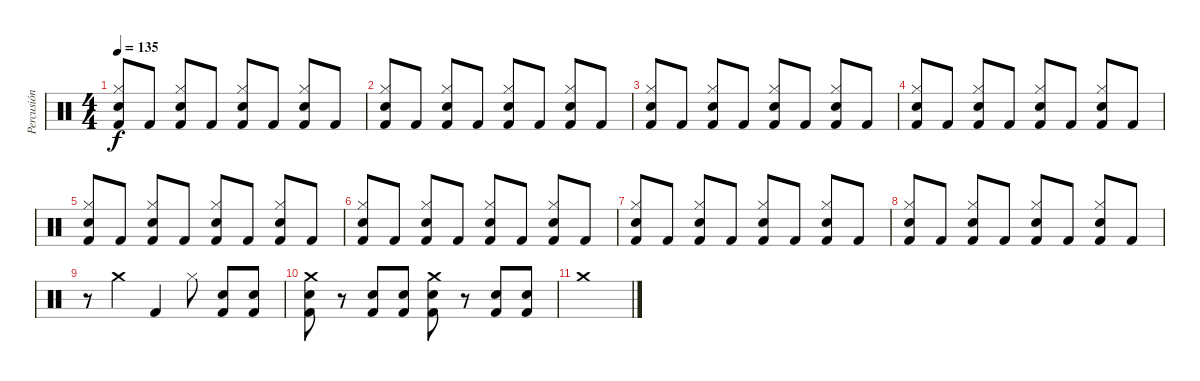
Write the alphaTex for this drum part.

\track ("Percusión" "Percusión") {instrument percussion}
\staff {score}
\articulation defaults
\ts (4 4)
\tempo 135
\clef neutral
\ks c
("Snare (hit) 2" "Hi-Hat (closed)" "Kick (hit) 2").8{dy f} "Kick (hit) 2".8 ("Snare (hit) 2" "Hi-Hat (closed)" "Kick (hit) 2").8 "Kick (hit) 2".8 ("Snare (hit) 2" "Hi-Hat (closed)" "Kick (hit) 2").8 "Kick (hit) 2".8 ("Snare (hit) 2" "Hi-Hat (closed)" "Kick (hit) 2").8 "Kick (hit) 2".8 |
("Snare (hit) 2" "Hi-Hat (closed)" "Kick (hit) 2").8 "Kick (hit) 2".8 ("Snare (hit) 2" "Hi-Hat (closed)" "Kick (hit) 2").8 "Kick (hit) 2".8 ("Snare (hit) 2" "Hi-Hat (closed)" "Kick (hit) 2").8 "Kick (hit) 2".8 ("Snare (hit) 2" "Hi-Hat (closed)" "Kick (hit) 2").8 "Kick (hit) 2".8 |
("Snare (hit) 2" "Hi-Hat (closed)" "Kick (hit) 2").8 "Kick (hit) 2".8 ("Snare (hit) 2" "Hi-Hat (closed)" "Kick (hit) 2").8 "Kick (hit) 2".8 ("Snare (hit) 2" "Hi-Hat (closed)" "Kick (hit) 2").8 "Kick (hit) 2".8 ("Snare (hit) 2" "Hi-Hat (closed)" "Kick (hit) 2").8 "Kick (hit) 2".8 |
("Snare (hit) 2" "Hi-Hat (closed)" "Kick (hit) 2").8 "Kick (hit) 2".8 ("Snare (hit) 2" "Hi-Hat (closed)" "Kick (hit) 2").8 "Kick (hit) 2".8 ("Snare (hit) 2" "Hi-Hat (closed)" "Kick (hit) 2").8 "Kick (hit) 2".8 ("Snare (hit) 2" "Hi-Hat (closed)" "Kick (hit) 2").8 "Kick (hit) 2".8 |
("Snare (hit) 2" "Hi-Hat (closed)" "Kick (hit) 2").8 "Kick (hit) 2".8 ("Snare (hit) 2" "Hi-Hat (closed)" "Kick (hit) 2").8 "Kick (hit) 2".8 ("Snare (hit) 2" "Hi-Hat (closed)" "Kick (hit) 2").8 "Kick (hit) 2".8 ("Snare (hit) 2" "Hi-Hat (closed)" "Kick (hit) 2").8 "Kick (hit) 2".8 |
("Snare (hit) 2" "Hi-Hat (closed)" "Kick (hit) 2").8 "Kick (hit) 2".8 ("Snare (hit) 2" "Hi-Hat (closed)" "Kick (hit) 2").8 "Kick (hit) 2".8 ("Snare (hit) 2" "Hi-Hat (closed)" "Kick (hit) 2").8 "Kick (hit) 2".8 ("Snare (hit) 2" "Hi-Hat (closed)" "Kick (hit) 2").8 "Kick (hit) 2".8 |
("Snare (hit) 2" "Hi-Hat (closed)" "Kick (hit) 2").8 "Kick (hit) 2".8 ("Snare (hit) 2" "Hi-Hat (closed)" "Kick (hit) 2").8 "Kick (hit) 2".8 ("Snare (hit) 2" "Hi-Hat (closed)" "Kick (hit) 2").8 "Kick (hit) 2".8 ("Snare (hit) 2" "Hi-Hat (closed)" "Kick (hit) 2").8 "Kick (hit) 2".8 |
("Snare (hit) 2" "Hi-Hat (closed)" "Kick (hit) 2").8 "Kick (hit) 2".8 ("Snare (hit) 2" "Hi-Hat (closed)" "Kick (hit) 2").8 "Kick (hit) 2".8 ("Snare (hit) 2" "Hi-Hat (closed)" "Kick (hit) 2").8 "Kick (hit) 2".8 ("Snare (hit) 2" "Hi-Hat (closed)" "Kick (hit) 2").8 "Kick (hit) 2".8 |
r.8 "Crash medium (hit)".4 "Kick (hit) 2".4 "Hi-Hat (closed)".8 ("Snare (hit) 2" "Kick (hit) 2").8 ("Snare (hit) 2" "Kick (hit) 2").8 |
("Crash medium (hit)" "Snare (hit) 2" "Kick (hit) 2").8 r.8 ("Snare (hit) 2" "Kick (hit) 2").8 ("Snare (hit) 2" "Kick (hit) 2").8 ("Crash medium (hit)" "Snare (hit) 2" "Kick (hit) 2").8 r.8 ("Snare (hit) 2" "Kick (hit) 2").8 ("Snare (hit) 2" "Kick (hit) 2").8 |
"Crash medium (hit)".1
